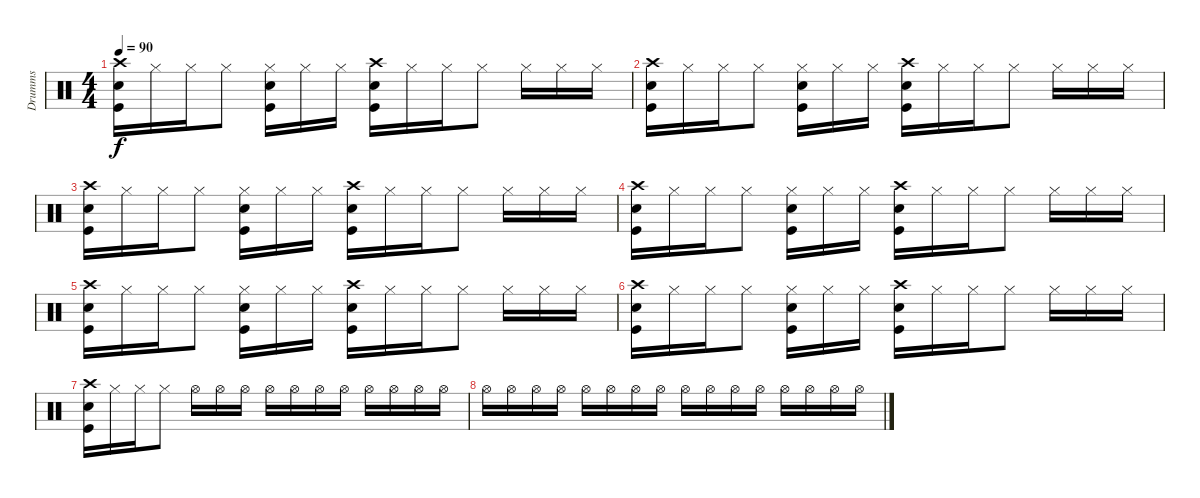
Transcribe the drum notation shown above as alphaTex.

\track ("Drumms" "Drumms") {instrument percussion}
\staff {score}
\articulation defaults
\ts (4 4)
\tempo 90
\clef neutral
\ks c
("Crash high (hit)" "Snare (hit) 2" "Kick (hit)").16{dy f} "Hi-Hat (closed)".16 "Hi-Hat (closed)".16 "Hi-Hat (closed)".8 ("Hi-Hat (closed)" "Snare (hit) 2" "Kick (hit)").16 "Hi-Hat (closed)".16 "Hi-Hat (closed)".16 ("Crash high (hit)" "Snare (hit) 2" "Kick (hit)").16 "Hi-Hat (closed)".16 "Hi-Hat (closed)".16 "Hi-Hat (closed)".8 "Hi-Hat (closed)".16 "Hi-Hat (closed)".16 "Hi-Hat (closed)".16 |
("Crash high (hit)" "Snare (hit) 2" "Kick (hit)").16 "Hi-Hat (closed)".16 "Hi-Hat (closed)".16 "Hi-Hat (closed)".8 ("Hi-Hat (closed)" "Snare (hit) 2" "Kick (hit)").16 "Hi-Hat (closed)".16 "Hi-Hat (closed)".16 ("Crash high (hit)" "Snare (hit) 2" "Kick (hit)").16 "Hi-Hat (closed)".16 "Hi-Hat (closed)".16 "Hi-Hat (closed)".8 "Hi-Hat (closed)".16 "Hi-Hat (closed)".16 "Hi-Hat (closed)".16 |
("Crash high (hit)" "Snare (hit) 2" "Kick (hit)").16 "Hi-Hat (closed)".16 "Hi-Hat (closed)".16 "Hi-Hat (closed)".8 ("Hi-Hat (closed)" "Snare (hit) 2" "Kick (hit)").16 "Hi-Hat (closed)".16 "Hi-Hat (closed)".16 ("Crash high (hit)" "Snare (hit) 2" "Kick (hit)").16 "Hi-Hat (closed)".16 "Hi-Hat (closed)".16 "Hi-Hat (closed)".8 "Hi-Hat (closed)".16 "Hi-Hat (closed)".16 "Hi-Hat (closed)".16 |
("Crash high (hit)" "Snare (hit) 2" "Kick (hit)").16 "Hi-Hat (closed)".16 "Hi-Hat (closed)".16 "Hi-Hat (closed)".8 ("Hi-Hat (closed)" "Snare (hit) 2" "Kick (hit)").16 "Hi-Hat (closed)".16 "Hi-Hat (closed)".16 ("Crash high (hit)" "Snare (hit) 2" "Kick (hit)").16 "Hi-Hat (closed)".16 "Hi-Hat (closed)".16 "Hi-Hat (closed)".8 "Hi-Hat (closed)".16 "Hi-Hat (closed)".16 "Hi-Hat (closed)".16 |
("Crash high (hit)" "Snare (hit) 2" "Kick (hit)").16 "Hi-Hat (closed)".16 "Hi-Hat (closed)".16 "Hi-Hat (closed)".8 ("Hi-Hat (closed)" "Snare (hit) 2" "Kick (hit)").16 "Hi-Hat (closed)".16 "Hi-Hat (closed)".16 ("Crash high (hit)" "Snare (hit) 2" "Kick (hit)").16 "Hi-Hat (closed)".16 "Hi-Hat (closed)".16 "Hi-Hat (closed)".8 "Hi-Hat (closed)".16 "Hi-Hat (closed)".16 "Hi-Hat (closed)".16 |
("Crash high (hit)" "Snare (hit) 2" "Kick (hit)").16 "Hi-Hat (closed)".16 "Hi-Hat (closed)".16 "Hi-Hat (closed)".8 ("Hi-Hat (closed)" "Snare (hit) 2" "Kick (hit)").16 "Hi-Hat (closed)".16 "Hi-Hat (closed)".16 ("Crash high (hit)" "Snare (hit) 2" "Kick (hit)").16 "Hi-Hat (closed)".16 "Hi-Hat (closed)".16 "Hi-Hat (closed)".8 "Hi-Hat (closed)".16 "Hi-Hat (closed)".16 "Hi-Hat (closed)".16 |
("Crash high (hit)" "Snare (hit) 2" "Kick (hit)").16 "Hi-Hat (closed)".16 "Hi-Hat (closed)".16 "Hi-Hat (closed)".8 "Hi-Hat (open)".16 "Hi-Hat (open)".16 "Hi-Hat (open)".16 "Hi-Hat (open)".16 "Hi-Hat (open)".16 "Hi-Hat (open)".16 "Hi-Hat (open)".16 "Hi-Hat (open)".16 "Hi-Hat (open)".16 "Hi-Hat (open)".16 "Hi-Hat (open)".16 |
"Hi-Hat (open)".16 "Hi-Hat (open)".16 "Hi-Hat (open)".16 "Hi-Hat (open)".16 "Hi-Hat (open)".16 "Hi-Hat (open)".16 "Hi-Hat (open)".16 "Hi-Hat (open)".16 "Hi-Hat (open)".16 "Hi-Hat (open)".16 "Hi-Hat (open)".16 "Hi-Hat (open)".16 "Hi-Hat (open)".16 "Hi-Hat (open)".16 "Hi-Hat (open)".16 "Hi-Hat (open)".16
